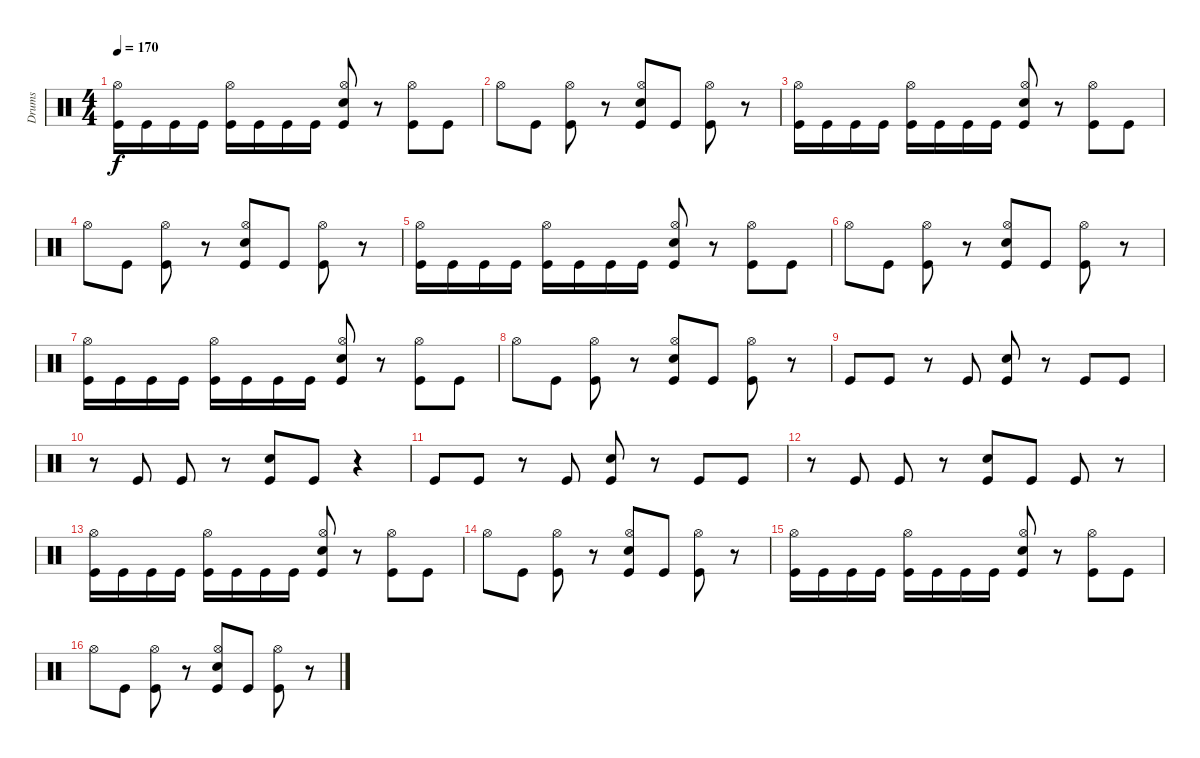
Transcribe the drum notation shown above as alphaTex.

\track ("Drums" "Drums") {instrument percussion}
\staff {score}
\articulation defaults
\ts (4 4)
\tempo 170
\clef neutral
\ks c
("Kick (hit)" "Hi-Hat (open)").16{dy f} "Kick (hit)".16 "Kick (hit)".16 "Kick (hit)".16 ("Kick (hit)" "Hi-Hat (open)").16 "Kick (hit)".16 "Kick (hit)".16 "Kick (hit)".16 ("Kick (hit)" "Hi-Hat (open)" "Snare (hit) 2").8 r.8 ("Kick (hit)" "Hi-Hat (open)").8 "Kick (hit)".8 |
"Hi-Hat (open)".8 "Kick (hit)".8 ("Kick (hit)" "Hi-Hat (open)").8 r.8 ("Kick (hit)" "Hi-Hat (open)" "Snare (hit) 2").8 "Kick (hit)".8 ("Kick (hit)" "Hi-Hat (open)").8 r.8 |
("Kick (hit)" "Hi-Hat (open)").16 "Kick (hit)".16 "Kick (hit)".16 "Kick (hit)".16 ("Kick (hit)" "Hi-Hat (open)").16 "Kick (hit)".16 "Kick (hit)".16 "Kick (hit)".16 ("Kick (hit)" "Hi-Hat (open)" "Snare (hit) 2").8 r.8 ("Kick (hit)" "Hi-Hat (open)").8 "Kick (hit)".8 |
"Hi-Hat (open)".8 "Kick (hit)".8 ("Kick (hit)" "Hi-Hat (open)").8 r.8 ("Kick (hit)" "Hi-Hat (open)" "Snare (hit) 2").8 "Kick (hit)".8 ("Kick (hit)" "Hi-Hat (open)").8 r.8 |
("Kick (hit)" "Hi-Hat (open)").16 "Kick (hit)".16 "Kick (hit)".16 "Kick (hit)".16 ("Kick (hit)" "Hi-Hat (open)").16 "Kick (hit)".16 "Kick (hit)".16 "Kick (hit)".16 ("Kick (hit)" "Hi-Hat (open)" "Snare (hit) 2").8 r.8 ("Kick (hit)" "Hi-Hat (open)").8 "Kick (hit)".8 |
"Hi-Hat (open)".8 "Kick (hit)".8 ("Kick (hit)" "Hi-Hat (open)").8 r.8 ("Kick (hit)" "Hi-Hat (open)" "Snare (hit) 2").8 "Kick (hit)".8 ("Kick (hit)" "Hi-Hat (open)").8 r.8 |
("Kick (hit)" "Hi-Hat (open)").16 "Kick (hit)".16 "Kick (hit)".16 "Kick (hit)".16 ("Kick (hit)" "Hi-Hat (open)").16 "Kick (hit)".16 "Kick (hit)".16 "Kick (hit)".16 ("Kick (hit)" "Hi-Hat (open)" "Snare (hit) 2").8 r.8 ("Kick (hit)" "Hi-Hat (open)").8 "Kick (hit)".8 |
"Hi-Hat (open)".8 "Kick (hit)".8 ("Kick (hit)" "Hi-Hat (open)").8 r.8 ("Kick (hit)" "Hi-Hat (open)" "Snare (hit) 2").8 "Kick (hit)".8 ("Kick (hit)" "Hi-Hat (open)").8 r.8 |
"Kick (hit)".8 "Kick (hit)".8 r.8 "Kick (hit)".8 ("Kick (hit)" "Snare (hit) 2").8 r.8 "Kick (hit)".8 "Kick (hit)".8 |
r.8 "Kick (hit)".8 "Kick (hit)".8 r.8 ("Snare (hit) 2" "Kick (hit)").8 "Kick (hit)".8 r.4 |
"Kick (hit)".8 "Kick (hit)".8 r.8 "Kick (hit)".8 ("Snare (hit) 2" "Kick (hit)").8 r.8 "Kick (hit)".8 "Kick (hit)".8 |
r.8 "Kick (hit)".8 "Kick (hit)".8 r.8 ("Snare (hit) 2" "Kick (hit)").8 "Kick (hit)".8 "Kick (hit)".8 r.8 |
("Kick (hit)" "Hi-Hat (open)").16 "Kick (hit)".16 "Kick (hit)".16 "Kick (hit)".16 ("Kick (hit)" "Hi-Hat (open)").16 "Kick (hit)".16 "Kick (hit)".16 "Kick (hit)".16 ("Kick (hit)" "Hi-Hat (open)" "Snare (hit) 2").8 r.8 ("Kick (hit)" "Hi-Hat (open)").8 "Kick (hit)".8 |
"Hi-Hat (open)".8 "Kick (hit)".8 ("Kick (hit)" "Hi-Hat (open)").8 r.8 ("Kick (hit)" "Hi-Hat (open)" "Snare (hit) 2").8 "Kick (hit)".8 ("Kick (hit)" "Hi-Hat (open)").8 r.8 |
("Kick (hit)" "Hi-Hat (open)").16 "Kick (hit)".16 "Kick (hit)".16 "Kick (hit)".16 ("Kick (hit)" "Hi-Hat (open)").16 "Kick (hit)".16 "Kick (hit)".16 "Kick (hit)".16 ("Kick (hit)" "Hi-Hat (open)" "Snare (hit) 2").8 r.8 ("Kick (hit)" "Hi-Hat (open)").8 "Kick (hit)".8 |
"Hi-Hat (open)".8 "Kick (hit)".8 ("Kick (hit)" "Hi-Hat (open)").8 r.8 ("Kick (hit)" "Hi-Hat (open)" "Snare (hit) 2").8 "Kick (hit)".8 ("Kick (hit)" "Hi-Hat (open)").8 r.8
